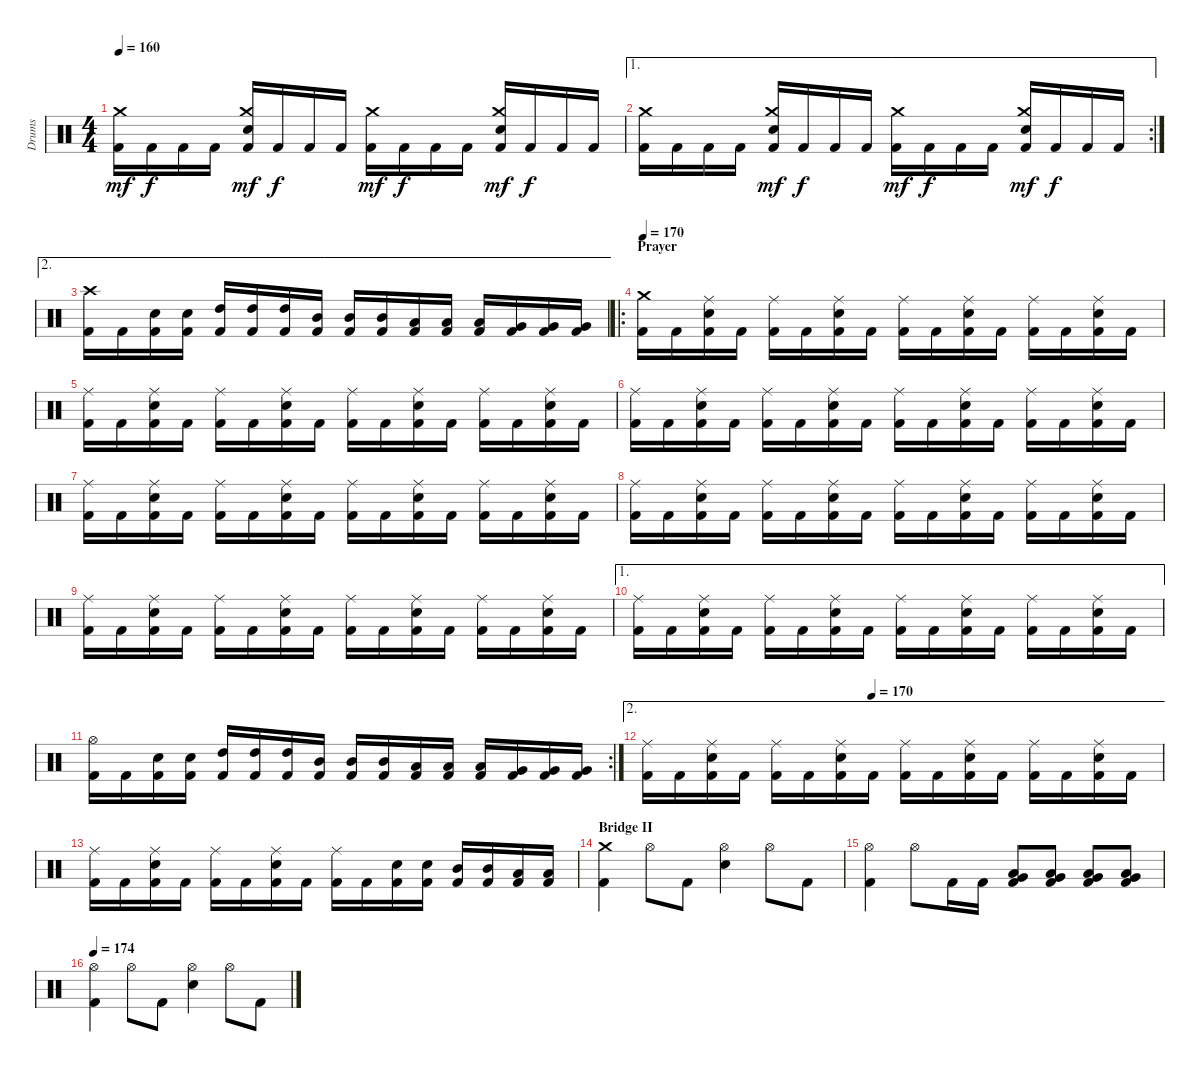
\track ("Drums" "Drums") {instrument percussion}
\staff {score}
\articulation defaults
\ts (4 4)
\tempo 160
\clef neutral
\ks c
("Kick (hit) 2" "Crash medium (hit)").16{dy mf} "Kick (hit) 2".16{dy f} "Kick (hit) 2".16 "Kick (hit) 2".16 ("Kick (hit) 2" "Electric Snare (hit)" "Crash medium (hit)").16{dy mf} "Kick (hit) 2".16{dy f} "Kick (hit) 2".16 "Kick (hit) 2".16 ("Kick (hit) 2" "Crash medium (hit)").16{dy mf} "Kick (hit) 2".16{dy f} "Kick (hit) 2".16 "Kick (hit) 2".16 ("Kick (hit) 2" "Electric Snare (hit)" "Crash medium (hit)").16{dy mf} "Kick (hit) 2".16{dy f} "Kick (hit) 2".16 "Kick (hit) 2".16 |
\ae 1
\rc 2
("Kick (hit) 2" "Crash medium (hit)").16 "Kick (hit) 2".16 "Kick (hit) 2".16 "Kick (hit) 2".16 ("Kick (hit) 2" "Electric Snare (hit)" "Crash medium (hit)").16{dy mf} "Kick (hit) 2".16{dy f} "Kick (hit) 2".16 "Kick (hit) 2".16 ("Kick (hit) 2" "Crash medium (hit)").16{dy mf} "Kick (hit) 2".16{dy f} "Kick (hit) 2".16 "Kick (hit) 2".16 ("Kick (hit) 2" "Electric Snare (hit)" "Crash medium (hit)").16{dy mf} "Kick (hit) 2".16{dy f} "Kick (hit) 2".16 "Kick (hit) 2".16 |
\ae 2
("Kick (hit) 2" "Crash high (hit)").16 "Kick (hit) 2".16 ("Kick (hit) 2" "Electric Snare (hit)").16 ("Kick (hit) 2" "Electric Snare (hit)").16 ("Kick (hit) 2" "High Tom (hit)").16 ("Kick (hit) 2" "High Tom (hit)").16 ("Kick (hit) 2" "High Tom (hit)").16 ("Kick (hit) 2" "Mid Tom (hit)").16 ("Kick (hit) 2" "Mid Tom (hit)").16 ("Kick (hit) 2" "Mid Tom (hit)").16 ("Kick (hit) 2" "Low Tom (hit)").16 ("Kick (hit) 2" "Low Tom (hit)").16 ("Kick (hit) 2" "Low Tom (hit)").16 ("Kick (hit) 2" "Very Low Tom (hit)").16 ("Kick (hit) 2" "Very Low Tom (hit)").16 ("Kick (hit) 2" "Very Low Tom (hit)").16 |
\ro
\section ("" "Prayer")
\tempo 170
("Kick (hit) 2" "Crash medium (hit)").16 "Kick (hit) 2".16 ("Kick (hit) 2" "Electric Snare (hit)" "Ride (middle)").16 "Kick (hit) 2".16 ("Kick (hit) 2" "Ride (middle)").16 "Kick (hit) 2".16 ("Kick (hit) 2" "Electric Snare (hit)" "Ride (middle)").16 "Kick (hit) 2".16 ("Kick (hit) 2" "Ride (middle)").16 "Kick (hit) 2".16 ("Kick (hit) 2" "Electric Snare (hit)" "Ride (middle)").16 "Kick (hit) 2".16 ("Kick (hit) 2" "Ride (middle)").16 "Kick (hit) 2".16 ("Kick (hit) 2" "Electric Snare (hit)" "Ride (middle)").16 "Kick (hit) 2".16 |
("Kick (hit) 2" "Ride (middle)").16 "Kick (hit) 2".16 ("Kick (hit) 2" "Electric Snare (hit)" "Ride (middle)").16 "Kick (hit) 2".16 ("Kick (hit) 2" "Ride (middle)").16 "Kick (hit) 2".16 ("Kick (hit) 2" "Electric Snare (hit)" "Ride (middle)").16 "Kick (hit) 2".16 ("Kick (hit) 2" "Ride (middle)").16 "Kick (hit) 2".16 ("Kick (hit) 2" "Electric Snare (hit)" "Ride (middle)").16 "Kick (hit) 2".16 ("Kick (hit) 2" "Ride (middle)").16 "Kick (hit) 2".16 ("Kick (hit) 2" "Electric Snare (hit)" "Ride (middle)").16 "Kick (hit) 2".16 |
("Kick (hit) 2" "Ride (middle)").16 "Kick (hit) 2".16 ("Kick (hit) 2" "Electric Snare (hit)" "Ride (middle)").16 "Kick (hit) 2".16 ("Kick (hit) 2" "Ride (middle)").16 "Kick (hit) 2".16 ("Kick (hit) 2" "Electric Snare (hit)" "Ride (middle)").16 "Kick (hit) 2".16 ("Kick (hit) 2" "Ride (middle)").16 "Kick (hit) 2".16 ("Kick (hit) 2" "Electric Snare (hit)" "Ride (middle)").16 "Kick (hit) 2".16 ("Kick (hit) 2" "Ride (middle)").16 "Kick (hit) 2".16 ("Kick (hit) 2" "Electric Snare (hit)" "Ride (middle)").16 "Kick (hit) 2".16 |
("Kick (hit) 2" "Ride (middle)").16 "Kick (hit) 2".16 ("Kick (hit) 2" "Electric Snare (hit)" "Ride (middle)").16 "Kick (hit) 2".16 ("Kick (hit) 2" "Ride (middle)").16 "Kick (hit) 2".16 ("Kick (hit) 2" "Electric Snare (hit)" "Ride (middle)").16 "Kick (hit) 2".16 ("Kick (hit) 2" "Ride (middle)").16 "Kick (hit) 2".16 ("Kick (hit) 2" "Electric Snare (hit)" "Ride (middle)").16 "Kick (hit) 2".16 ("Kick (hit) 2" "Ride (middle)").16 "Kick (hit) 2".16 ("Kick (hit) 2" "Electric Snare (hit)" "Ride (middle)").16 "Kick (hit) 2".16 |
("Kick (hit) 2" "Ride (middle)").16 "Kick (hit) 2".16 ("Kick (hit) 2" "Electric Snare (hit)" "Ride (middle)").16 "Kick (hit) 2".16 ("Kick (hit) 2" "Ride (middle)").16 "Kick (hit) 2".16 ("Kick (hit) 2" "Electric Snare (hit)" "Ride (middle)").16 "Kick (hit) 2".16 ("Kick (hit) 2" "Ride (middle)").16 "Kick (hit) 2".16 ("Kick (hit) 2" "Electric Snare (hit)" "Ride (middle)").16 "Kick (hit) 2".16 ("Kick (hit) 2" "Ride (middle)").16 "Kick (hit) 2".16 ("Kick (hit) 2" "Electric Snare (hit)" "Ride (middle)").16 "Kick (hit) 2".16 |
("Kick (hit) 2" "Ride (middle)").16 "Kick (hit) 2".16 ("Kick (hit) 2" "Electric Snare (hit)" "Ride (middle)").16 "Kick (hit) 2".16 ("Kick (hit) 2" "Ride (middle)").16 "Kick (hit) 2".16 ("Kick (hit) 2" "Electric Snare (hit)" "Ride (middle)").16 "Kick (hit) 2".16 ("Kick (hit) 2" "Ride (middle)").16 "Kick (hit) 2".16 ("Kick (hit) 2" "Electric Snare (hit)" "Ride (middle)").16 "Kick (hit) 2".16 ("Kick (hit) 2" "Ride (middle)").16 "Kick (hit) 2".16 ("Kick (hit) 2" "Electric Snare (hit)" "Ride (middle)").16 "Kick (hit) 2".16 |
\ae 1
("Kick (hit) 2" "Ride (middle)").16 "Kick (hit) 2".16 ("Kick (hit) 2" "Electric Snare (hit)" "Ride (middle)").16 "Kick (hit) 2".16 ("Kick (hit) 2" "Ride (middle)").16 "Kick (hit) 2".16 ("Kick (hit) 2" "Electric Snare (hit)" "Ride (middle)").16 "Kick (hit) 2".16 ("Kick (hit) 2" "Ride (middle)").16 "Kick (hit) 2".16 ("Kick (hit) 2" "Electric Snare (hit)" "Ride (middle)").16 "Kick (hit) 2".16 ("Kick (hit) 2" "Ride (middle)").16 "Kick (hit) 2".16 ("Kick (hit) 2" "Electric Snare (hit)" "Ride (middle)").16 "Kick (hit) 2".16 |
\rc 2
("Kick (hit) 2" "Hi-Hat (open)").16 "Kick (hit) 2".16 ("Kick (hit) 2" "Electric Snare (hit)").16 ("Kick (hit) 2" "Electric Snare (hit)").16 ("Kick (hit) 2" "High Tom (hit)").16 ("Kick (hit) 2" "High Tom (hit)").16 ("Kick (hit) 2" "High Tom (hit)").16 ("Kick (hit) 2" "Mid Tom (hit)").16 ("Kick (hit) 2" "Mid Tom (hit)").16 ("Kick (hit) 2" "Mid Tom (hit)").16 ("Kick (hit) 2" "Low Tom (hit)").16 ("Kick (hit) 2" "Low Tom (hit)").16 ("Kick (hit) 2" "Low Tom (hit)").16 ("Kick (hit) 2" "Very Low Tom (hit)").16 ("Kick (hit) 2" "Very Low Tom (hit)").16 ("Kick (hit) 2" "Very Low Tom (hit)").16 |
\ae 2
\tempo (170 0.4375)
("Kick (hit) 2" "Ride (middle)").16 "Kick (hit) 2".16 ("Kick (hit) 2" "Electric Snare (hit)" "Ride (middle)").16 "Kick (hit) 2".16 ("Kick (hit) 2" "Ride (middle)").16 "Kick (hit) 2".16 ("Kick (hit) 2" "Electric Snare (hit)" "Ride (middle)").16 "Kick (hit) 2".16 ("Kick (hit) 2" "Ride (middle)").16 "Kick (hit) 2".16 ("Kick (hit) 2" "Electric Snare (hit)" "Ride (middle)").16 "Kick (hit) 2".16 ("Kick (hit) 2" "Ride (middle)").16 "Kick (hit) 2".16 ("Kick (hit) 2" "Electric Snare (hit)" "Ride (middle)").16 "Kick (hit) 2".16 |
("Kick (hit) 2" "Ride (middle)").16 "Kick (hit) 2".16 ("Kick (hit) 2" "Electric Snare (hit)" "Ride (middle)").16 "Kick (hit) 2".16 ("Kick (hit) 2" "Ride (middle)").16 "Kick (hit) 2".16 ("Kick (hit) 2" "Electric Snare (hit)" "Ride (middle)").16 "Kick (hit) 2".16 ("Kick (hit) 2" "Ride (middle)").16 "Kick (hit) 2".16 ("Kick (hit) 2" "Electric Snare (hit)").16 ("Kick (hit) 2" "Electric Snare (hit)").16 ("Kick (hit) 2" "Mid Tom (hit)").16 ("Kick (hit) 2" "Mid Tom (hit)").16 ("Kick (hit) 2" "Low Tom (hit)").16 ("Kick (hit) 2" "Low Tom (hit)").16 |
\section ("" "Bridge II")
("Kick (hit) 2" "Crash medium (hit)").4 "Hi-Hat (open)".8 "Kick (hit) 2".8 ("Electric Snare (hit)" "Hi-Hat (open)").4 "Hi-Hat (open)".8 "Kick (hit) 2".8 |
("Kick (hit) 2" "Hi-Hat (open)").4 "Hi-Hat (open)".8 "Kick (hit) 2".16 "Kick (hit) 2".16 ("Kick (hit) 2" "Low Tom (hit)" "Very Low Tom (hit)").8 ("Kick (hit) 2" "Low Tom (hit)" "Very Low Tom (hit)").8 ("Kick (hit) 2" "Low Tom (hit)" "Very Low Tom (hit)").8 ("Kick (hit) 2" "Low Tom (hit)" "Very Low Tom (hit)").8 |
\tempo 174
("Kick (hit) 2" "Hi-Hat (open)").4 "Hi-Hat (open)".8 "Kick (hit) 2".8 ("Electric Snare (hit)" "Hi-Hat (open)").4 "Hi-Hat (open)".8 "Kick (hit) 2".8
